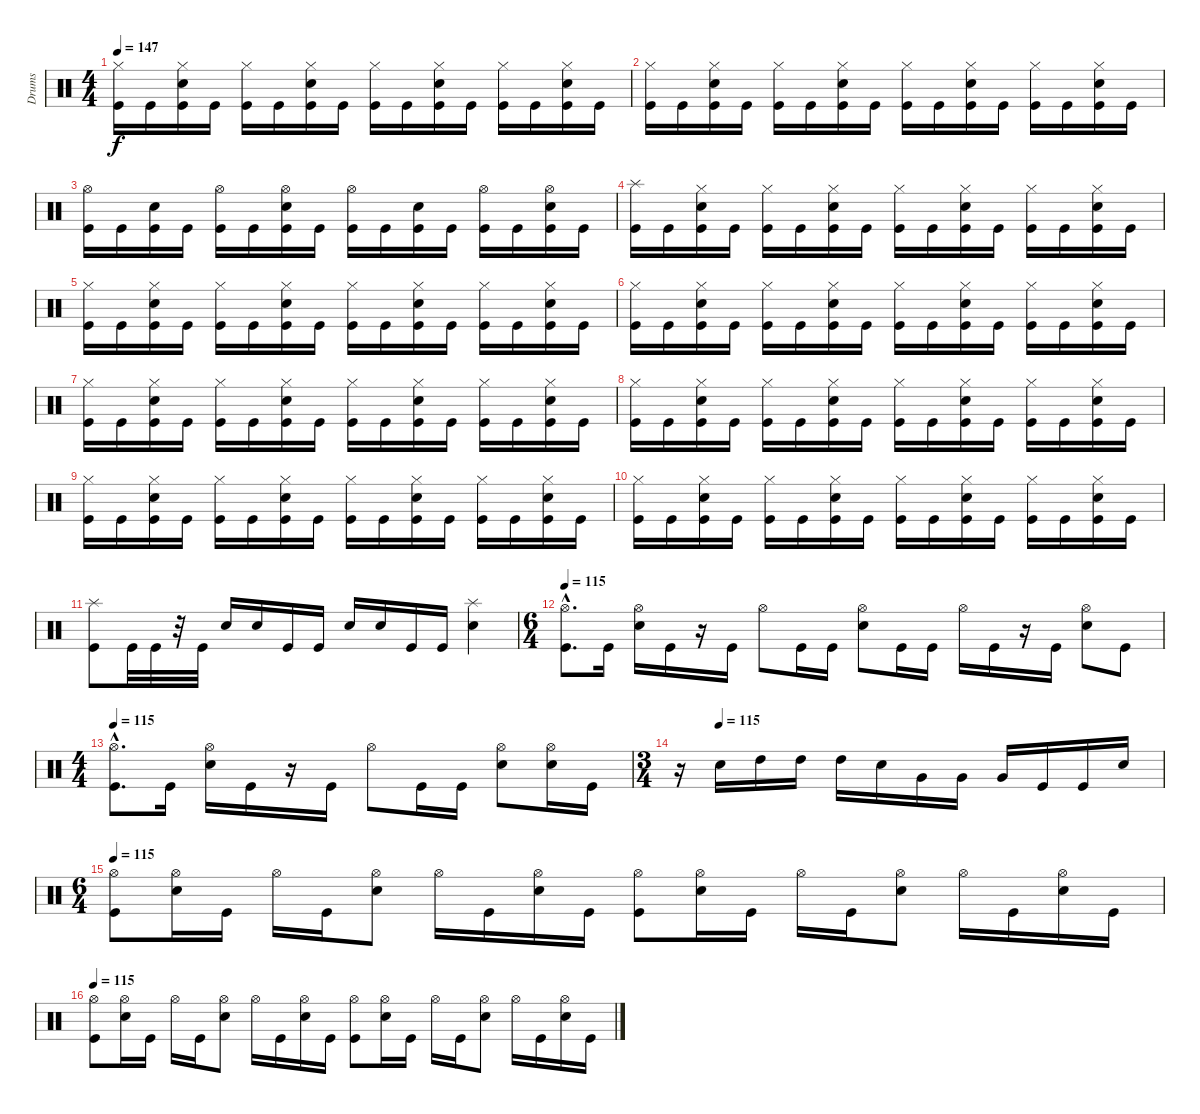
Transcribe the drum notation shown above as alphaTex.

\track ("Drums" "Drums") {instrument percussion}
\staff {score}
\articulation defaults
\ts (4 4)
\tempo 147
\clef neutral
\ks c
("Kick (hit)" "Hi-Hat (closed)").16{dy f} "Kick (hit)".16 ("Hi-Hat (closed)" "Kick (hit)" "Snare (hit) 2").16 "Kick (hit)".16 ("Hi-Hat (closed)" "Kick (hit)").16 "Kick (hit)".16 ("Hi-Hat (closed)" "Kick (hit)" "Snare (hit) 2").16 "Kick (hit)".16 ("Kick (hit)" "Hi-Hat (closed)").16 "Kick (hit)".16 ("Kick (hit)" "Snare (hit) 2" "Hi-Hat (closed)").16 "Kick (hit)".16 ("Kick (hit)" "Hi-Hat (closed)").16 "Kick (hit)".16 ("Hi-Hat (closed)" "Kick (hit)" "Snare (hit) 2").16 "Kick (hit)".16 |
("Kick (hit)" "Hi-Hat (closed)").16 "Kick (hit)".16 ("Hi-Hat (closed)" "Snare (hit) 2" "Kick (hit)").16 "Kick (hit)".16 ("Kick (hit)" "Hi-Hat (closed)").16 "Kick (hit)".16 ("Snare (hit) 2" "Kick (hit)" "Hi-Hat (closed)").16 "Kick (hit)".16 ("Kick (hit)" "Hi-Hat (closed)").16 "Kick (hit)".16 ("Hi-Hat (closed)" "Kick (hit)" "Snare (hit) 2").16 "Kick (hit)".16 ("Hi-Hat (closed)" "Kick (hit)").16 "Kick (hit)".16 ("Kick (hit)" "Snare (hit) 2" "Hi-Hat (closed)").16 "Kick (hit)".16 |
("Kick (hit)" "Hi-Hat (open)").16 "Kick (hit)".16 ("Snare (hit) 2" "Kick (hit)").16 "Kick (hit)".16 ("Kick (hit)" "Hi-Hat (open)").16 "Kick (hit)".16 ("Hi-Hat (open)" "Kick (hit)" "Snare (hit) 2").16 "Kick (hit)".16 ("Hi-Hat (open)" "Kick (hit)").16 "Kick (hit)".16 ("Snare (hit) 2" "Kick (hit)").16 "Kick (hit)".16 ("Hi-Hat (open)" "Kick (hit)").16 "Kick (hit)".16 ("Kick (hit)" "Snare (hit) 2" "Hi-Hat (open)").16 "Kick (hit)".16 |
("Splash (hit)" "Kick (hit)").16 "Kick (hit)".16 ("Snare (hit) 2" "Hi-Hat (closed)" "Kick (hit)").16 "Kick (hit)".16 ("Hi-Hat (closed)" "Kick (hit)").16 "Kick (hit)".16 ("Kick (hit)" "Snare (hit) 2" "Hi-Hat (closed)").16 "Kick (hit)".16 ("Kick (hit)" "Hi-Hat (closed)").16 "Kick (hit)".16 ("Kick (hit)" "Snare (hit) 2" "Hi-Hat (closed)").16 "Kick (hit)".16 ("Hi-Hat (closed)" "Kick (hit)").16 "Kick (hit)".16 ("Hi-Hat (closed)" "Snare (hit) 2" "Kick (hit)").16 "Kick (hit)".16 |
("Hi-Hat (closed)" "Kick (hit)").16 "Kick (hit)".16 ("Snare (hit) 2" "Hi-Hat (closed)" "Kick (hit)").16 "Kick (hit)".16 ("Kick (hit)" "Hi-Hat (closed)").16 "Kick (hit)".16 ("Snare (hit) 2" "Kick (hit)" "Hi-Hat (closed)").16 "Kick (hit)".16 ("Kick (hit)" "Hi-Hat (closed)").16 "Kick (hit)".16 ("Hi-Hat (closed)" "Snare (hit) 2" "Kick (hit)").16 "Kick (hit)".16 ("Hi-Hat (closed)" "Kick (hit)").16 "Kick (hit)".16 ("Snare (hit) 2" "Hi-Hat (closed)" "Kick (hit)").16 "Kick (hit)".16 |
("Hi-Hat (closed)" "Kick (hit)").16 "Kick (hit)".16 ("Kick (hit)" "Snare (hit) 2" "Hi-Hat (closed)").16 "Kick (hit)".16 ("Kick (hit)" "Hi-Hat (closed)").16 "Kick (hit)".16 ("Kick (hit)" "Snare (hit) 2" "Hi-Hat (closed)").16 "Kick (hit)".16 ("Hi-Hat (closed)" "Kick (hit)").16 "Kick (hit)".16 ("Hi-Hat (closed)" "Snare (hit) 2" "Kick (hit)").16 "Kick (hit)".16 ("Hi-Hat (closed)" "Kick (hit)").16 "Kick (hit)".16 ("Snare (hit) 2" "Kick (hit)" "Hi-Hat (closed)").16 "Kick (hit)".16 |
("Kick (hit)" "Hi-Hat (closed)").16 "Kick (hit)".16 ("Hi-Hat (closed)" "Kick (hit)" "Snare (hit) 2").16 "Kick (hit)".16 ("Kick (hit)" "Hi-Hat (closed)").16 "Kick (hit)".16 ("Hi-Hat (closed)" "Snare (hit) 2" "Kick (hit)").16 "Kick (hit)".16 ("Hi-Hat (closed)" "Kick (hit)").16 "Kick (hit)".16 ("Kick (hit)" "Snare (hit) 2" "Hi-Hat (closed)").16 "Kick (hit)".16 ("Kick (hit)" "Hi-Hat (closed)").16 "Kick (hit)".16 ("Kick (hit)" "Snare (hit) 2" "Hi-Hat (closed)").16 "Kick (hit)".16 |
("Kick (hit)" "Hi-Hat (closed)").16 "Kick (hit)".16 ("Hi-Hat (closed)" "Snare (hit) 2" "Kick (hit)").16 "Kick (hit)".16 ("Hi-Hat (closed)" "Kick (hit)").16 "Kick (hit)".16 ("Snare (hit) 2" "Hi-Hat (closed)" "Kick (hit)").16 "Kick (hit)".16 ("Hi-Hat (closed)" "Kick (hit)").16 "Kick (hit)".16 ("Snare (hit) 2" "Hi-Hat (closed)" "Kick (hit)").16 "Kick (hit)".16 ("Hi-Hat (closed)" "Kick (hit)").16 "Kick (hit)".16 ("Snare (hit) 2" "Hi-Hat (closed)" "Kick (hit)").16 "Kick (hit)".16 |
("Kick (hit)" "Hi-Hat (closed)").16 "Kick (hit)".16 ("Snare (hit) 2" "Kick (hit)" "Hi-Hat (closed)").16 "Kick (hit)".16 ("Hi-Hat (closed)" "Kick (hit)").16 "Kick (hit)".16 ("Snare (hit) 2" "Hi-Hat (closed)" "Kick (hit)").16 "Kick (hit)".16 ("Kick (hit)" "Hi-Hat (closed)").16 "Kick (hit)".16 ("Kick (hit)" "Snare (hit) 2" "Hi-Hat (closed)").16 "Kick (hit)".16 ("Kick (hit)" "Hi-Hat (closed)").16 "Kick (hit)".16 ("Kick (hit)" "Snare (hit) 2" "Hi-Hat (closed)").16 "Kick (hit)".16 |
("Kick (hit)" "Hi-Hat (closed)").16 "Kick (hit)".16 ("Hi-Hat (closed)" "Kick (hit)" "Snare (hit) 2").16 "Kick (hit)".16 ("Kick (hit)" "Hi-Hat (closed)").16 "Kick (hit)".16 ("Snare (hit) 2" "Hi-Hat (closed)" "Kick (hit)").16 "Kick (hit)".16 ("Hi-Hat (closed)" "Kick (hit)").16 "Kick (hit)".16 ("Kick (hit)" "Hi-Hat (closed)" "Snare (hit) 2").16 "Kick (hit)".16 ("Hi-Hat (closed)" "Kick (hit)").16 "Kick (hit)".16 ("Hi-Hat (closed)" "Snare (hit) 2" "Kick (hit)").16 "Kick (hit)".16 |
("Splash (hit)" "Kick (hit)").8 "Kick (hit)".32 "Kick (hit)".32 r.32 "Kick (hit)".32 "Snare (hit) 2".16 "Snare (hit) 2".16 "Kick (hit)".16 "Kick (hit)".16 "Snare (hit) 2".16 "Snare (hit) 2".16 "Kick (hit)".16 "Kick (hit)".16 ("Snare (hit) 2" "Splash (hit)").4 |
\ts (6 4)
\tempo 115
("Kick (hit)"{hac} "Hi-Hat (open)").8{d} "Kick (hit)".16 ("Hi-Hat (open)" "Snare (hit) 2").16 "Kick (hit)".16 r.16 "Kick (hit)".16 "Hi-Hat (open)".8 "Kick (hit)".16 "Kick (hit)".16 ("Hi-Hat (open)" "Snare (hit) 2").8 "Kick (hit)".16 "Kick (hit)".16 "Hi-Hat (open)".16 "Kick (hit)".16 r.16 "Kick (hit)".16 ("Hi-Hat (open)" "Snare (hit) 2").8 "Kick (hit)".8 |
\ts (4 4)
\tempo 115
("Kick (hit)"{hac} "Hi-Hat (open)").8{d} "Kick (hit)".16 ("Snare (hit) 2" "Hi-Hat (open)").16 "Kick (hit)".16 r.16 "Kick (hit)".16 "Hi-Hat (open)".8 "Kick (hit)".16 "Kick (hit)".16 ("Hi-Hat (open)" "Snare (hit) 2").8 ("Snare (hit) 2" "Hi-Hat (open)").16 "Kick (hit)".16 |
\ts (3 4)
\tempo (115 0.08333333333333333)
r.16 "Snare (hit) 2".16 "High Tom (hit)".16 "High Tom (hit)".16 "High Tom (hit)".16 "Snare (hit) 2".16 "Very Low Tom (hit)".16 "Very Low Tom (hit)".16 "Very Low Tom (hit)".16 "Kick (hit)".16 "Kick (hit)".16 "Snare (hit) 2".16 |
\ts (6 4)
\tempo 115
("Kick (hit)" "Hi-Hat (open)").8 ("Hi-Hat (open)" "Snare (hit) 2").16 "Kick (hit)".16 "Hi-Hat (open)".16 "Kick (hit)".16 ("Hi-Hat (open)" "Snare (hit) 2").8 "Hi-Hat (open)".16 "Kick (hit)".16 ("Snare (hit) 2" "Hi-Hat (open)").16 "Kick (hit)".16 ("Kick (hit)" "Hi-Hat (open)").8 ("Snare (hit) 2" "Hi-Hat (open)").16 "Kick (hit)".16 "Hi-Hat (open)".16 "Kick (hit)".16 ("Hi-Hat (open)" "Snare (hit) 2").8 "Hi-Hat (open)".16 "Kick (hit)".16 ("Hi-Hat (open)" "Snare (hit) 2").16 "Kick (hit)".16 |
\tempo 115
("Kick (hit)" "Hi-Hat (open)").8 ("Hi-Hat (open)" "Snare (hit) 2").16 "Kick (hit)".16 "Hi-Hat (open)".16 "Kick (hit)".16 ("Hi-Hat (open)" "Snare (hit) 2").8 "Hi-Hat (open)".16 "Kick (hit)".16 ("Hi-Hat (open)" "Snare (hit) 2").16 "Kick (hit)".16 ("Kick (hit)" "Hi-Hat (open)").8 ("Hi-Hat (open)" "Snare (hit) 2").16 "Kick (hit)".16 "Hi-Hat (open)".16 "Kick (hit)".16 ("Snare (hit) 2" "Hi-Hat (open)").8 "Hi-Hat (open)".16 "Kick (hit)".16 ("Snare (hit) 2" "Hi-Hat (open)").16 "Kick (hit)".16
